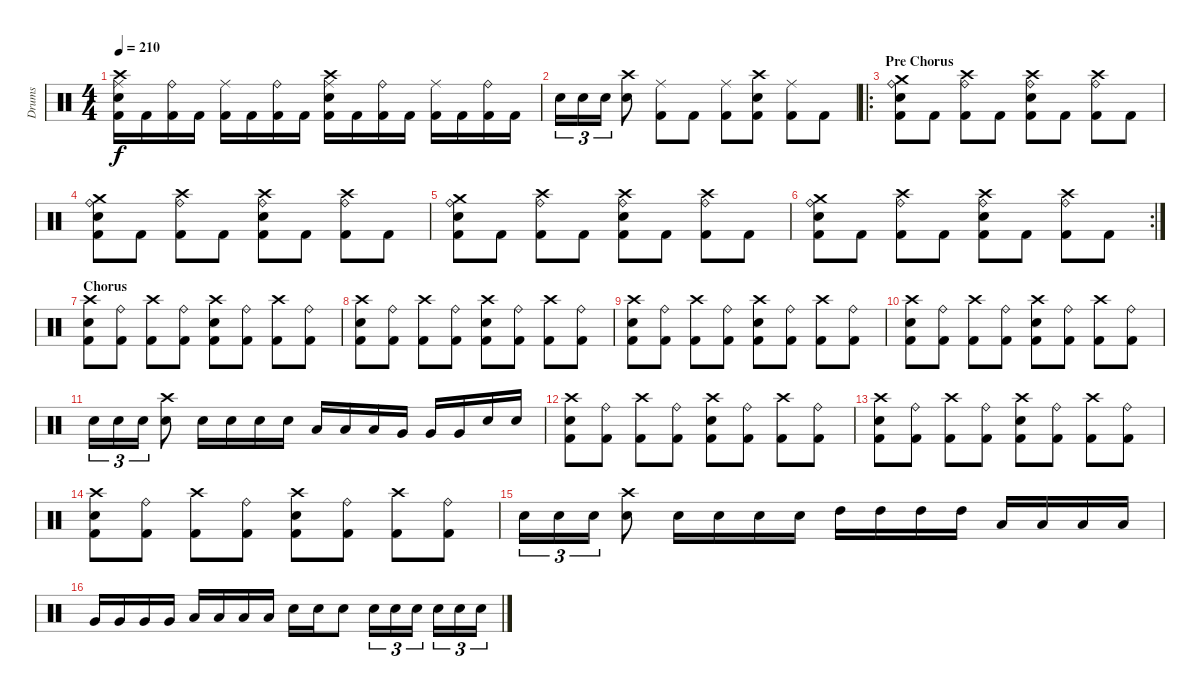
\track ("Drums" "Drums") {instrument percussion}
\staff {score}
\articulation defaults
\ts (4 4)
\tempo 210
\clef neutral
\ks c
("Kick (hit) 2" "Electric Snare (hit)" "Crash high (hit)" "Ride (middle)").16{dy f} "Kick (hit) 2".16 ("Kick (hit) 2" "Ride (bell)").16 "Kick (hit) 2".16 ("Kick (hit) 2" "Ride (middle)").16 "Kick (hit) 2".16 ("Kick (hit) 2" "Ride (bell)").16 "Kick (hit) 2".16 ("Kick (hit) 2" "Electric Snare (hit)" "Crash high (hit)" "Ride (middle)").16 "Kick (hit) 2".16 ("Kick (hit) 2" "Ride (bell)").16 "Kick (hit) 2".16 ("Kick (hit) 2" "Ride (middle)").16 "Kick (hit) 2".16 ("Kick (hit) 2" "Ride (bell)").16 "Kick (hit) 2".16 |
"Electric Snare (hit)".16{tu (3 2)} "Electric Snare (hit)".16{tu (3 2)} "Electric Snare (hit)".16{tu (3 2)} ("Crash high (hit)" "Electric Snare (hit)").8 ("Kick (hit) 2" "Ride (middle)").8 "Kick (hit) 2".8 ("Kick (hit) 2" "Ride (middle)").8 ("Kick (hit) 2" "Crash high (hit)" "Electric Snare (hit)").8 ("Kick (hit) 2" "Ride (middle)").8 "Kick (hit) 2".8 |
\ro
\section ("" "Pre Chorus")
("Kick (hit) 2" "Electric Snare (hit)" "Ride (bell)" "Crash medium (hit)").8 "Kick (hit) 2".8 ("Kick (hit) 2" "Crash high (hit)" "Ride (bell)").8 "Kick (hit) 2".8 ("Kick (hit) 2" "Crash high (hit)" "Ride (bell)" "Electric Snare (hit)").8 "Kick (hit) 2".8 ("Kick (hit) 2" "Crash high (hit)" "Ride (bell)").8 "Kick (hit) 2".8 |
("Kick (hit) 2" "Electric Snare (hit)" "Ride (bell)" "Crash medium (hit)").8 "Kick (hit) 2".8 ("Kick (hit) 2" "Crash high (hit)" "Ride (bell)").8 "Kick (hit) 2".8 ("Kick (hit) 2" "Crash high (hit)" "Ride (bell)" "Electric Snare (hit)").8 "Kick (hit) 2".8 ("Kick (hit) 2" "Crash high (hit)" "Ride (bell)").8 "Kick (hit) 2".8 |
("Kick (hit) 2" "Electric Snare (hit)" "Ride (bell)" "Crash medium (hit)").8 "Kick (hit) 2".8 ("Kick (hit) 2" "Crash high (hit)" "Ride (bell)").8 "Kick (hit) 2".8 ("Kick (hit) 2" "Crash high (hit)" "Ride (bell)" "Electric Snare (hit)").8 "Kick (hit) 2".8 ("Kick (hit) 2" "Crash high (hit)" "Ride (bell)").8 "Kick (hit) 2".8 |
\rc 2
("Kick (hit) 2" "Electric Snare (hit)" "Ride (bell)" "Crash medium (hit)").8 "Kick (hit) 2".8 ("Kick (hit) 2" "Crash high (hit)" "Ride (bell)").8 "Kick (hit) 2".8 ("Kick (hit) 2" "Crash high (hit)" "Ride (bell)" "Electric Snare (hit)").8 "Kick (hit) 2".8 ("Kick (hit) 2" "Crash high (hit)" "Ride (bell)").8 "Kick (hit) 2".8 |
\section ("" "Chorus")
("Kick (hit) 2" "Electric Snare (hit)" "Crash high (hit)").8 ("Kick (hit) 2" "Ride (bell)").8 ("Kick (hit) 2" "Crash high (hit)").8 ("Kick (hit) 2" "Ride (bell)").8 ("Kick (hit) 2" "Crash high (hit)" "Electric Snare (hit)").8 ("Kick (hit) 2" "Ride (bell)").8 ("Kick (hit) 2" "Crash high (hit)").8 ("Kick (hit) 2" "Ride (bell)").8 |
("Kick (hit) 2" "Electric Snare (hit)" "Crash high (hit)").8 ("Kick (hit) 2" "Ride (bell)").8 ("Kick (hit) 2" "Crash high (hit)").8 ("Kick (hit) 2" "Ride (bell)").8 ("Kick (hit) 2" "Crash high (hit)" "Electric Snare (hit)").8 ("Kick (hit) 2" "Ride (bell)").8 ("Kick (hit) 2" "Crash high (hit)").8 ("Kick (hit) 2" "Ride (bell)").8 |
("Kick (hit) 2" "Electric Snare (hit)" "Crash high (hit)").8 ("Kick (hit) 2" "Ride (bell)").8 ("Kick (hit) 2" "Crash high (hit)").8 ("Kick (hit) 2" "Ride (bell)").8 ("Kick (hit) 2" "Crash high (hit)" "Electric Snare (hit)").8 ("Kick (hit) 2" "Ride (bell)").8 ("Kick (hit) 2" "Crash high (hit)").8 ("Kick (hit) 2" "Ride (bell)").8 |
("Kick (hit) 2" "Electric Snare (hit)" "Crash high (hit)").8 ("Kick (hit) 2" "Ride (bell)").8 ("Kick (hit) 2" "Crash high (hit)").8 ("Kick (hit) 2" "Ride (bell)").8 ("Kick (hit) 2" "Crash high (hit)" "Electric Snare (hit)").8 ("Kick (hit) 2" "Ride (bell)").8 ("Kick (hit) 2" "Crash high (hit)").8 ("Kick (hit) 2" "Ride (bell)").8 |
"Electric Snare (hit)".16{tu (3 2)} "Electric Snare (hit)".16{tu (3 2)} "Electric Snare (hit)".16{tu (3 2)} ("Electric Snare (hit)" "Crash high (hit)").8 "Electric Snare (hit)".16 "Electric Snare (hit)".16 "Electric Snare (hit)".16 "Electric Snare (hit)".16 "Low Tom (hit)".16 "Low Tom (hit)".16 "Low Tom (hit)".16 "Very Low Tom (hit)".16 "Very Low Tom (hit)".16 "Very Low Tom (hit)".16 "Electric Snare (hit)".16 "Electric Snare (hit)".16 |
("Kick (hit) 2" "Electric Snare (hit)" "Crash high (hit)").8 ("Kick (hit) 2" "Ride (bell)").8 ("Kick (hit) 2" "Crash high (hit)").8 ("Kick (hit) 2" "Ride (bell)").8 ("Kick (hit) 2" "Crash high (hit)" "Electric Snare (hit)").8 ("Kick (hit) 2" "Ride (bell)").8 ("Kick (hit) 2" "Crash high (hit)").8 ("Kick (hit) 2" "Ride (bell)").8 |
("Kick (hit) 2" "Electric Snare (hit)" "Crash high (hit)").8 ("Kick (hit) 2" "Ride (bell)").8 ("Kick (hit) 2" "Crash high (hit)").8 ("Kick (hit) 2" "Ride (bell)").8 ("Kick (hit) 2" "Crash high (hit)" "Electric Snare (hit)").8 ("Kick (hit) 2" "Ride (bell)").8 ("Kick (hit) 2" "Crash high (hit)").8 ("Kick (hit) 2" "Ride (bell)").8 |
("Kick (hit) 2" "Electric Snare (hit)" "Crash high (hit)").8 ("Kick (hit) 2" "Ride (bell)").8 ("Kick (hit) 2" "Crash high (hit)").8 ("Kick (hit) 2" "Ride (bell)").8 ("Kick (hit) 2" "Crash high (hit)" "Electric Snare (hit)").8 ("Kick (hit) 2" "Ride (bell)").8 ("Kick (hit) 2" "Crash high (hit)").8 ("Kick (hit) 2" "Ride (bell)").8 |
"Electric Snare (hit)".16{tu (3 2)} "Electric Snare (hit)".16{tu (3 2)} "Electric Snare (hit)".16{tu (3 2)} ("Electric Snare (hit)" "Crash high (hit)").8 "Electric Snare (hit)".16 "Electric Snare (hit)".16 "Electric Snare (hit)".16 "Electric Snare (hit)".16 "High Tom (hit)".16 "High Tom (hit)".16 "High Tom (hit)".16 "High Tom (hit)".16 "Low Tom (hit)".16 "Low Tom (hit)".16 "Low Tom (hit)".16 "Low Tom (hit)".16 |
"Very Low Tom (hit)".16 "Very Low Tom (hit)".16 "Very Low Tom (hit)".16 "Very Low Tom (hit)".16 "Low Floor Tom (hit)".16 "Low Floor Tom (hit)".16 "Low Floor Tom (hit)".16 "Low Floor Tom (hit)".16 "Electric Snare (hit)".16 "Electric Snare (hit)".16 "Electric Snare (hit)".8 "Electric Snare (hit)".16{tu (3 2)} "Electric Snare (hit)".16{tu (3 2)} "Electric Snare (hit)".16{tu (3 2)} "Electric Snare (hit)".16{tu (3 2)} "Electric Snare (hit)".16{tu (3 2)} "Electric Snare (hit)".16{tu (3 2)}
